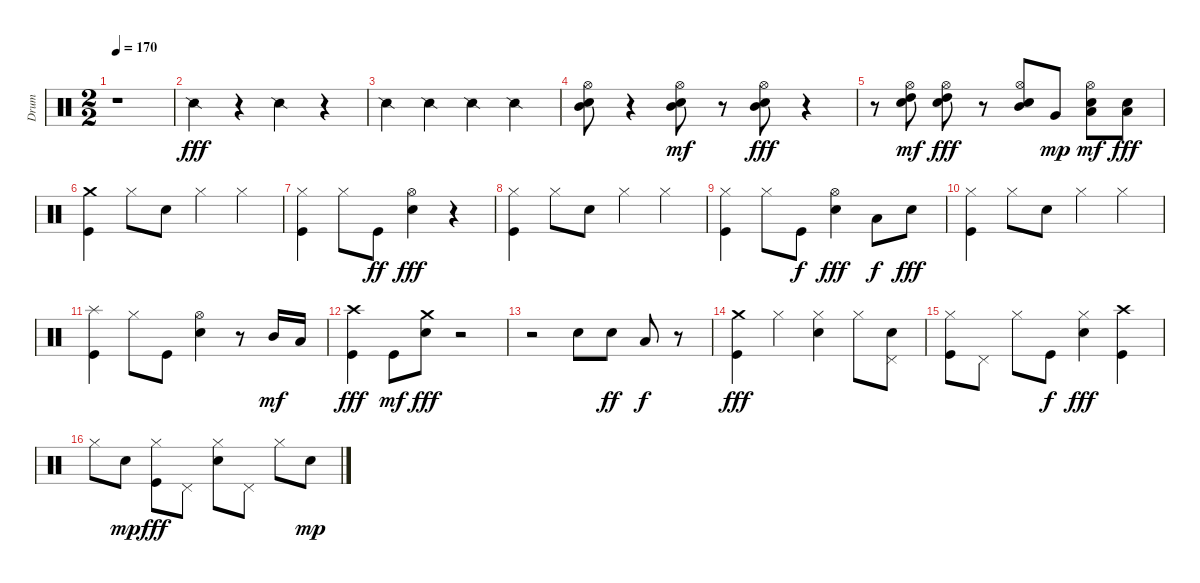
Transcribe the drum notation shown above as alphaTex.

\track ("Drum" "Drum") {instrument percussion}
\staff {score}
\articulation defaults
\ts (2 2)
\tempo 170
\clef neutral
\ks c
r.1{dy fff} |
"Snare (side stick) 2".4 r.4 "Snare (side stick) 2".4 r.4 |
"Snare (side stick) 2".4 "Snare (side stick) 2".4 "Snare (side stick) 2".4 "Snare (side stick) 2".4 |
("Mid Tom (hit)" "Hi-Hat (open)" "Electric Snare (hit)").8 r.4 ("Mid Tom (hit)" "Electric Snare (hit)" "Hi-Hat (open)").8{dy mf} r.8 ("Mid Tom (hit)" "Electric Snare (hit)" "Hi-Hat (open)").8{dy fff} r.4 |
r.8 ("Hi-Hat (open)" "High Tom (hit)" "Electric Snare (hit)").8{dy mf} ("Hi-Hat (open)" "High Tom (hit)" "Electric Snare (hit)").8{dy fff} r.8 ("Electric Snare (hit)" "Hi-Hat (open)" "Mid Tom (hit)").8 "Very Low Tom (hit)".8{dy mp} ("Electric Snare (hit)" "Hi-Hat (open)" "Low Tom (hit)").8{dy mf} ("Electric Snare (hit)" "Low Floor Tom (hit)").8{dy fff} |
("Crash medium (hit)" "Kick (hit)").4 "Hi-Hat (closed)".8 "Electric Snare (hit)".8 "Hi-Hat (closed)".4 "Hi-Hat (closed)".4 |
("Kick (hit)" "Hi-Hat (closed)").4 "Hi-Hat (closed)".8 "Kick (hit)".8{dy ff} ("Electric Snare (hit)" "Hi-Hat (open)").4{dy fff} r.4 |
("Hi-Hat (closed)" "Kick (hit)").4 "Hi-Hat (closed)".8 "Electric Snare (hit)".8 "Hi-Hat (closed)".4 "Hi-Hat (closed)".4 |
("Kick (hit)" "Hi-Hat (closed)").4 "Hi-Hat (closed)".8 "Kick (hit)".8{dy f} ("Electric Snare (hit)" "Hi-Hat (open)").4{dy fff} "Low Floor Tom (hit)".8{dy f} "Electric Snare (hit)".8{dy fff} |
("Hi-Hat (closed)" "Kick (hit)").4 "Hi-Hat (closed)".8 "Electric Snare (hit)".8 "Hi-Hat (closed)".4 "Hi-Hat (closed)".4 |
("Splash (hit)" "Kick (hit)").4 "Hi-Hat (closed)".8 "Kick (hit)".8 ("Electric Snare (hit)" "Hi-Hat (open)").4 r.8 "Mid Tom (hit)".16{dy mf} "Low Tom (hit)".16 |
("Kick (hit)" "Crash high (hit)").4{dy fff} "Kick (hit)".8{dy mf} ("Electric Snare (hit)" "Crash medium (hit)").8{dy fff} r.2 |
r.2 "Electric Snare (hit)".8 "Electric Snare (hit)".8{dy ff} "Low Floor Tom (hit)".8{dy f} r.8 |
("Crash medium (hit)" "Kick (hit)").4{dy fff} "Hi-Hat (closed)".4 ("Hi-Hat (closed)" "Electric Snare (hit)").4 "Hi-Hat (closed)".8 ("Pedal Hi-Hat (hit)" "Electric Snare (hit)").8 |
("Hi-Hat (closed)" "Kick (hit)").8 "Pedal Hi-Hat (hit)".8 "Hi-Hat (closed)".8 "Kick (hit)".8{dy f} ("Hi-Hat (closed)" "Electric Snare (hit)").4{dy fff} ("Crash high (hit)" "Kick (hit)").4 |
"Hi-Hat (closed)".8 "Electric Snare (hit)".8{dy mp} ("Kick (hit)" "Hi-Hat (closed)").8{dy fff} "Pedal Hi-Hat (hit)".8 ("Electric Snare (hit)" "Hi-Hat (closed)").8 "Pedal Hi-Hat (hit)".8 "Hi-Hat (closed)".8 "Electric Snare (hit)".8{dy mp}
